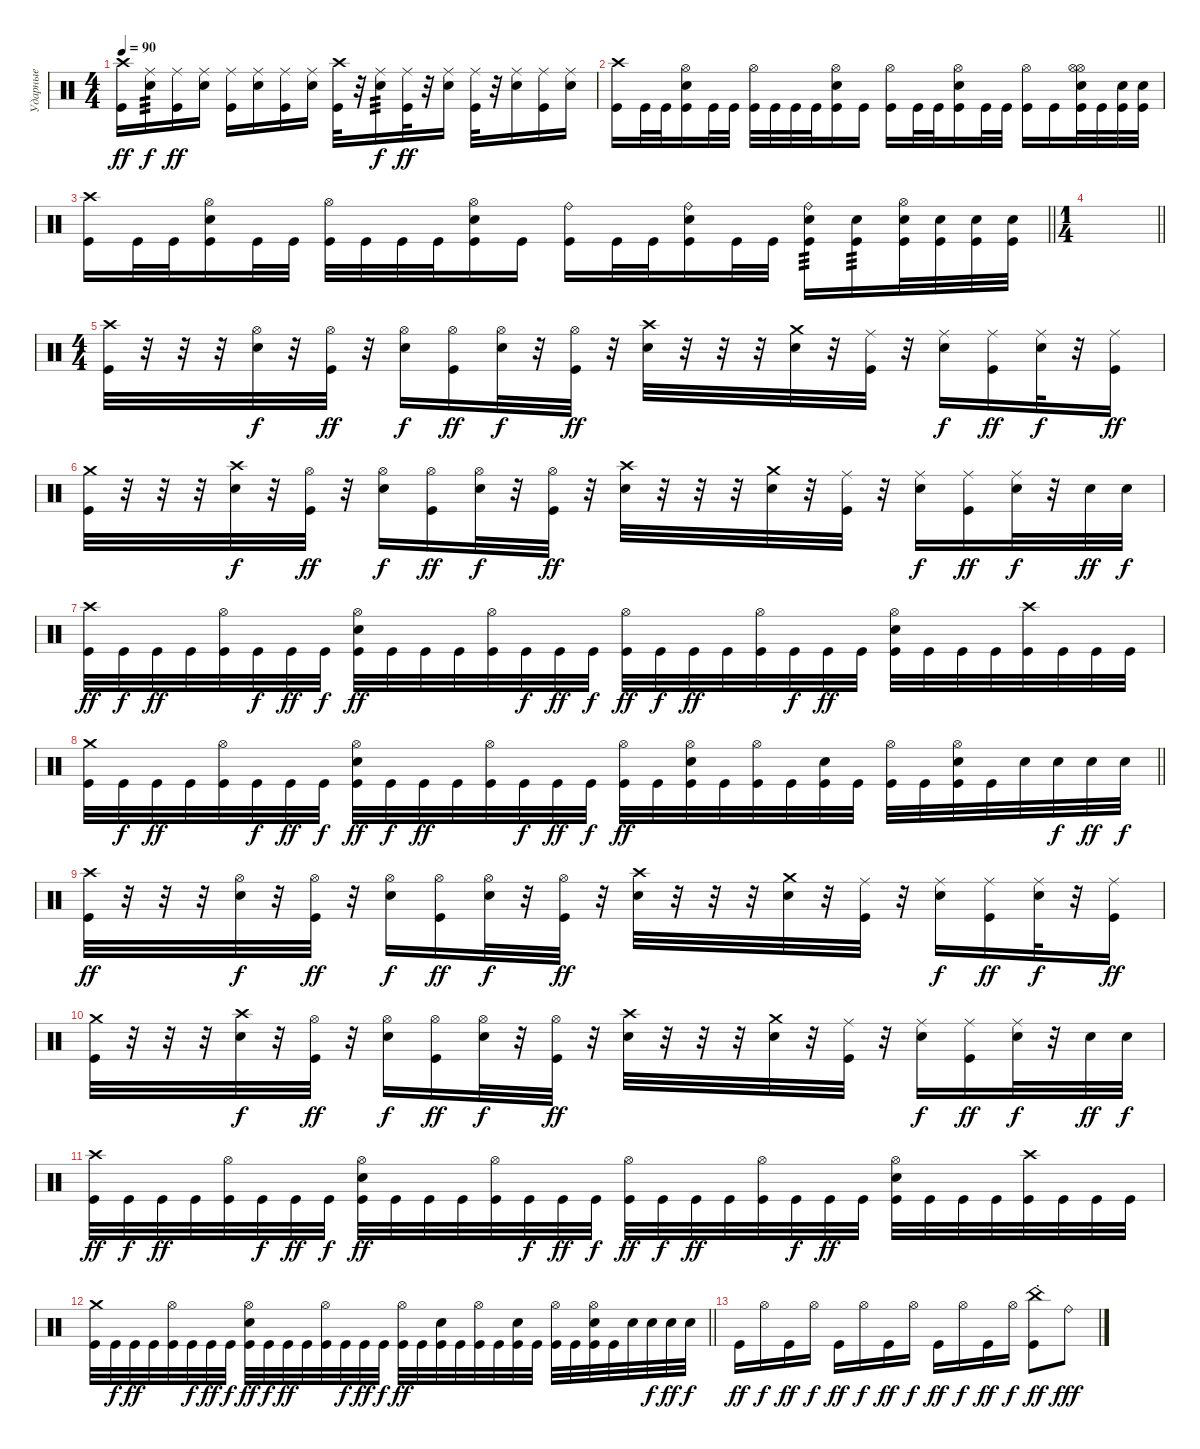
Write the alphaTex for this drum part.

\track ("Ударные" "Ударные") {instrument percussion}
\staff {score}
\articulation defaults
\ts (4 4)
\tempo 90
\clef neutral
\ks c
("Crash high (hit)" "Kick (hit)").16{dy ff} ("Electric Snare (hit)" "Ride (middle)").16{tp 3 dy f} ("Ride (middle)" "Kick (hit)").16{dy ff} ("Ride (middle)" "Electric Snare (hit)").16 ("Ride (middle)" "Kick (hit)").16 ("Ride (middle)" "Electric Snare (hit)").16 ("Ride (middle)" "Kick (hit)").16 ("Ride (middle)" "Electric Snare (hit)").16 ("Crash high (hit)" "Kick (hit)").32 r.32 ("Ride (middle)" "Electric Snare (hit)").16{tp 3 dy f} ("Ride (middle)" "Kick (hit)").32{dy ff} r.32 ("Ride (middle)" "Electric Snare (hit)").16 ("Ride (middle)" "Kick (hit)").32 r.32 ("Ride (middle)" "Electric Snare (hit)").16 ("Ride (middle)" "Kick (hit)").16 ("Ride (middle)" "Electric Snare (hit)").16 |
("Crash high (hit)" "Kick (hit)").16 "Kick (hit)".32 "Kick (hit)".32 ("Hi-Hat (open)" "Electric Snare (hit)" "Kick (hit)").16 "Kick (hit)".32 "Kick (hit)".32 ("Hi-Hat (open)" "Kick (hit)").32 "Kick (hit)".32 "Kick (hit)".32 "Kick (hit)".32 ("Hi-Hat (open)" "Electric Snare (hit)" "Kick (hit)").16 "Kick (hit)".16 ("Hi-Hat (open)" "Kick (hit)").16 "Kick (hit)".32 "Kick (hit)".32 ("Hi-Hat (open)" "Electric Snare (hit)" "Kick (hit)").16 "Kick (hit)".32 "Kick (hit)".32 ("Hi-Hat (open)" "Kick (hit)").16 "Kick (hit)".16 ("Hi-Hat (open)" "Hi-Hat (open)" "Electric Snare (hit)" "Kick (hit)").32 "Kick (hit)".32 ("Electric Snare (hit)" "Kick (hit)").32 ("Electric Snare (hit)" "Kick (hit)").32 |
\barLineRight lightlight
("Crash high (hit)" "Kick (hit)").16 "Kick (hit)".32 "Kick (hit)".32 ("Hi-Hat (open)" "Electric Snare (hit)" "Kick (hit)").16 "Kick (hit)".32 "Kick (hit)".32 ("Hi-Hat (open)" "Kick (hit)").32 "Kick (hit)".32 "Kick (hit)".32 "Kick (hit)".32 ("Hi-Hat (open)" "Electric Snare (hit)" "Kick (hit)").16 "Kick (hit)".16 ("Ride (bell)" "Kick (hit)").16 "Kick (hit)".32 "Kick (hit)".32 ("Ride (bell)" "Electric Snare (hit)" "Kick (hit)").16 "Kick (hit)".32 "Kick (hit)".32 ("Ride (bell)" "Snare (hit) 2" "Kick (hit)").16{tp 3} ("Snare (hit) 2" "Kick (hit)").16{tp 3} ("Hi-Hat (open)" "Electric Snare (hit)" "Kick (hit)").32 ("Electric Snare (hit)" "Kick (hit)").32 ("Electric Snare (hit)" "Kick (hit)").32 ("Electric Snare (hit)" "Kick (hit)").32 |
\ts (1 4)
\barLineRight lightlight
|
\ts (4 4)
("Crash high (hit)" "Kick (hit)").32 r.32 r.32 r.32 ("Electric Snare (hit)" "Hi-Hat (open)").32{dy f} r.32 ("Hi-Hat (open)" "Kick (hit)").32{dy ff} r.32 ("Electric Snare (hit)" "Hi-Hat (open)").16{dy f} ("Hi-Hat (open)" "Kick (hit)").16{dy ff} ("Electric Snare (hit)" "Hi-Hat (open)").32{dy f} r.32 ("Hi-Hat (open)" "Kick (hit)").32{dy ff} r.32 ("Electric Snare (hit)" "Crash high (hit)").32 r.32 r.32 r.32 ("Electric Snare (hit)" "Crash medium (hit)").32 r.32 ("Ride (middle)" "Kick (hit)").32 r.32 ("Electric Snare (hit)" "Ride (middle)").16{dy f} ("Ride (middle)" "Kick (hit)").16{dy ff} ("Electric Snare (hit)" "Ride (middle)").32{dy f} r.32 ("Ride (middle)" "Kick (hit)").16{dy ff} |
("Crash medium (hit)" "Kick (hit)").32 r.32 r.32 r.32 ("Electric Snare (hit)" "Crash high (hit)").32{dy f} r.32 ("Hi-Hat (open)" "Kick (hit)").32{dy ff} r.32 ("Electric Snare (hit)" "Hi-Hat (open)").16{dy f} ("Hi-Hat (open)" "Kick (hit)").16{dy ff} ("Electric Snare (hit)" "Hi-Hat (open)").32{dy f} r.32 ("Hi-Hat (open)" "Kick (hit)").32{dy ff} r.32 ("Electric Snare (hit)" "Crash high (hit)").32 r.32 r.32 r.32 ("Electric Snare (hit)" "Crash medium (hit)").32 r.32 ("Ride (middle)" "Kick (hit)").32 r.32 ("Electric Snare (hit)" "Ride (middle)").16{dy f} ("Ride (middle)" "Kick (hit)").16{dy ff} ("Electric Snare (hit)" "Ride (middle)").32{dy f} r.32 "Electric Snare (hit)".32{dy ff} "Electric Snare (hit)".32{dy f} |
("Crash high (hit)" "Kick (hit)").32{dy ff} "Kick (hit)".32{dy f} "Kick (hit)".32{dy ff} "Kick (hit)".32 ("Hi-Hat (open)" "Kick (hit)").32 "Kick (hit)".32{dy f} "Kick (hit)".32{dy ff} "Kick (hit)".32{dy f} ("Hi-Hat (open)" "Electric Snare (hit)" "Kick (hit)").32{dy ff} "Kick (hit)".32 "Kick (hit)".32 "Kick (hit)".32 ("Hi-Hat (open)" "Kick (hit)").32 "Kick (hit)".32{dy f} "Kick (hit)".32{dy ff} "Kick (hit)".32{dy f} ("Hi-Hat (open)" "Kick (hit)").32{dy ff} "Kick (hit)".32{dy f} "Kick (hit)".32{dy ff} "Kick (hit)".32 ("Hi-Hat (open)" "Kick (hit)").32 "Kick (hit)".32{dy f} "Kick (hit)".32{dy ff} "Kick (hit)".32 ("Hi-Hat (open)" "Electric Snare (hit)" "Kick (hit)").32 "Kick (hit)".32 "Kick (hit)".32 "Kick (hit)".32 ("Crash high (hit)" "Kick (hit)").32 "Kick (hit)".32 "Kick (hit)".32 "Kick (hit)".32 |
\barLineRight lightlight
("Crash medium (hit)" "Kick (hit)").32 "Kick (hit)".32{dy f} "Kick (hit)".32{dy ff} "Kick (hit)".32 ("Hi-Hat (open)" "Kick (hit)").32 "Kick (hit)".32{dy f} "Kick (hit)".32{dy ff} "Kick (hit)".32{dy f} ("Hi-Hat (open)" "Electric Snare (hit)" "Kick (hit)").32{dy ff} "Kick (hit)".32{dy f} "Kick (hit)".32{dy ff} "Kick (hit)".32 ("Hi-Hat (open)" "Kick (hit)").32 "Kick (hit)".32{dy f} "Kick (hit)".32{dy ff} "Kick (hit)".32{dy f} ("Hi-Hat (open)" "Kick (hit)").32{dy ff} "Kick (hit)".32 ("Hi-Hat (open)" "Electric Snare (hit)" "Kick (hit)").32 "Kick (hit)".32 ("Hi-Hat (open)" "Kick (hit)").32 "Kick (hit)".32 ("Electric Snare (hit)" "Kick (hit)").32 "Kick (hit)".32 ("Hi-Hat (open)" "Kick (hit)").32 "Kick (hit)".32 ("Hi-Hat (open)" "Electric Snare (hit)" "Kick (hit)").32 "Kick (hit)".32 "Electric Snare (hit)".32 "Electric Snare (hit)".32{dy f} "Electric Snare (hit)".32{dy ff} "Electric Snare (hit)".32{dy f} |
("Crash high (hit)" "Kick (hit)").32{dy ff} r.32 r.32 r.32 ("Electric Snare (hit)" "Hi-Hat (open)").32{dy f} r.32 ("Hi-Hat (open)" "Kick (hit)").32{dy ff} r.32 ("Electric Snare (hit)" "Hi-Hat (open)").16{dy f} ("Hi-Hat (open)" "Kick (hit)").16{dy ff} ("Electric Snare (hit)" "Hi-Hat (open)").32{dy f} r.32 ("Hi-Hat (open)" "Kick (hit)").32{dy ff} r.32 ("Electric Snare (hit)" "Crash high (hit)").32 r.32 r.32 r.32 ("Electric Snare (hit)" "Crash medium (hit)").32 r.32 ("Ride (middle)" "Kick (hit)").32 r.32 ("Electric Snare (hit)" "Ride (middle)").16{dy f} ("Ride (middle)" "Kick (hit)").16{dy ff} ("Electric Snare (hit)" "Ride (middle)").32{dy f} r.32 ("Ride (middle)" "Kick (hit)").16{dy ff} |
("Crash medium (hit)" "Kick (hit)").32 r.32 r.32 r.32 ("Electric Snare (hit)" "Crash high (hit)").32{dy f} r.32 ("Hi-Hat (open)" "Kick (hit)").32{dy ff} r.32 ("Electric Snare (hit)" "Hi-Hat (open)").16{dy f} ("Hi-Hat (open)" "Kick (hit)").16{dy ff} ("Electric Snare (hit)" "Hi-Hat (open)").32{dy f} r.32 ("Hi-Hat (open)" "Kick (hit)").32{dy ff} r.32 ("Electric Snare (hit)" "Crash high (hit)").32 r.32 r.32 r.32 ("Electric Snare (hit)" "Crash medium (hit)").32 r.32 ("Ride (middle)" "Kick (hit)").32 r.32 ("Electric Snare (hit)" "Ride (middle)").16{dy f} ("Ride (middle)" "Kick (hit)").16{dy ff} ("Electric Snare (hit)" "Ride (middle)").32{dy f} r.32 "Electric Snare (hit)".32{dy ff} "Electric Snare (hit)".32{dy f} |
("Crash high (hit)" "Kick (hit)").32{dy ff} "Kick (hit)".32{dy f} "Kick (hit)".32{dy ff} "Kick (hit)".32 ("Hi-Hat (open)" "Kick (hit)").32 "Kick (hit)".32{dy f} "Kick (hit)".32{dy ff} "Kick (hit)".32{dy f} ("Hi-Hat (open)" "Electric Snare (hit)" "Kick (hit)").32{dy ff} "Kick (hit)".32 "Kick (hit)".32 "Kick (hit)".32 ("Hi-Hat (open)" "Kick (hit)").32 "Kick (hit)".32{dy f} "Kick (hit)".32{dy ff} "Kick (hit)".32{dy f} ("Hi-Hat (open)" "Kick (hit)").32{dy ff} "Kick (hit)".32{dy f} "Kick (hit)".32{dy ff} "Kick (hit)".32 ("Hi-Hat (open)" "Kick (hit)").32 "Kick (hit)".32{dy f} "Kick (hit)".32{dy ff} "Kick (hit)".32 ("Hi-Hat (open)" "Electric Snare (hit)" "Kick (hit)").32 "Kick (hit)".32 "Kick (hit)".32 "Kick (hit)".32 ("Crash high (hit)" "Kick (hit)").32 "Kick (hit)".32 "Kick (hit)".32 "Kick (hit)".32 |
\barLineRight lightlight
("Crash medium (hit)" "Kick (hit)").32 "Kick (hit)".32{dy f} "Kick (hit)".32{dy ff} "Kick (hit)".32 ("Hi-Hat (open)" "Kick (hit)").32 "Kick (hit)".32{dy f} "Kick (hit)".32{dy ff} "Kick (hit)".32{dy f} ("Hi-Hat (open)" "Electric Snare (hit)" "Kick (hit)").32{dy ff} "Kick (hit)".32{dy f} "Kick (hit)".32{dy ff} "Kick (hit)".32 ("Hi-Hat (open)" "Kick (hit)").32 "Kick (hit)".32{dy f} "Kick (hit)".32{dy ff} "Kick (hit)".32{dy f} ("Hi-Hat (open)" "Kick (hit)").32{dy ff} "Kick (hit)".32 ("Electric Snare (hit)" "Kick (hit)").32 "Kick (hit)".32 ("Hi-Hat (open)" "Kick (hit)").32 "Kick (hit)".32 ("Electric Snare (hit)" "Kick (hit)").32 "Kick (hit)".32 ("Hi-Hat (open)" "Kick (hit)").32 "Kick (hit)".32 ("Hi-Hat (open)" "Electric Snare (hit)" "Kick (hit)").32 "Kick (hit)".32 "Electric Snare (hit)".32 "Electric Snare (hit)".32{dy f} "Electric Snare (hit)".32{dy ff} "Electric Snare (hit)".32{dy f} |
"Kick (hit)".16{dy ff} "Hi-Hat (open)".16{dy f} "Kick (hit)".16{dy ff} "Hi-Hat (open)".16{dy f} "Kick (hit)".16{dy ff} "Hi-Hat (open)".16{dy f} "Kick (hit)".16{dy ff} "Hi-Hat (open)".16{dy f} "Kick (hit)".16{dy ff} "Hi-Hat (open)".16{dy f} "Kick (hit)".16{dy ff} "Hi-Hat (open)".16{dy f} ("China (hit)"{st} "Kick (hit)").8{dy ff} "Ride (bell)".8{dy fff}
